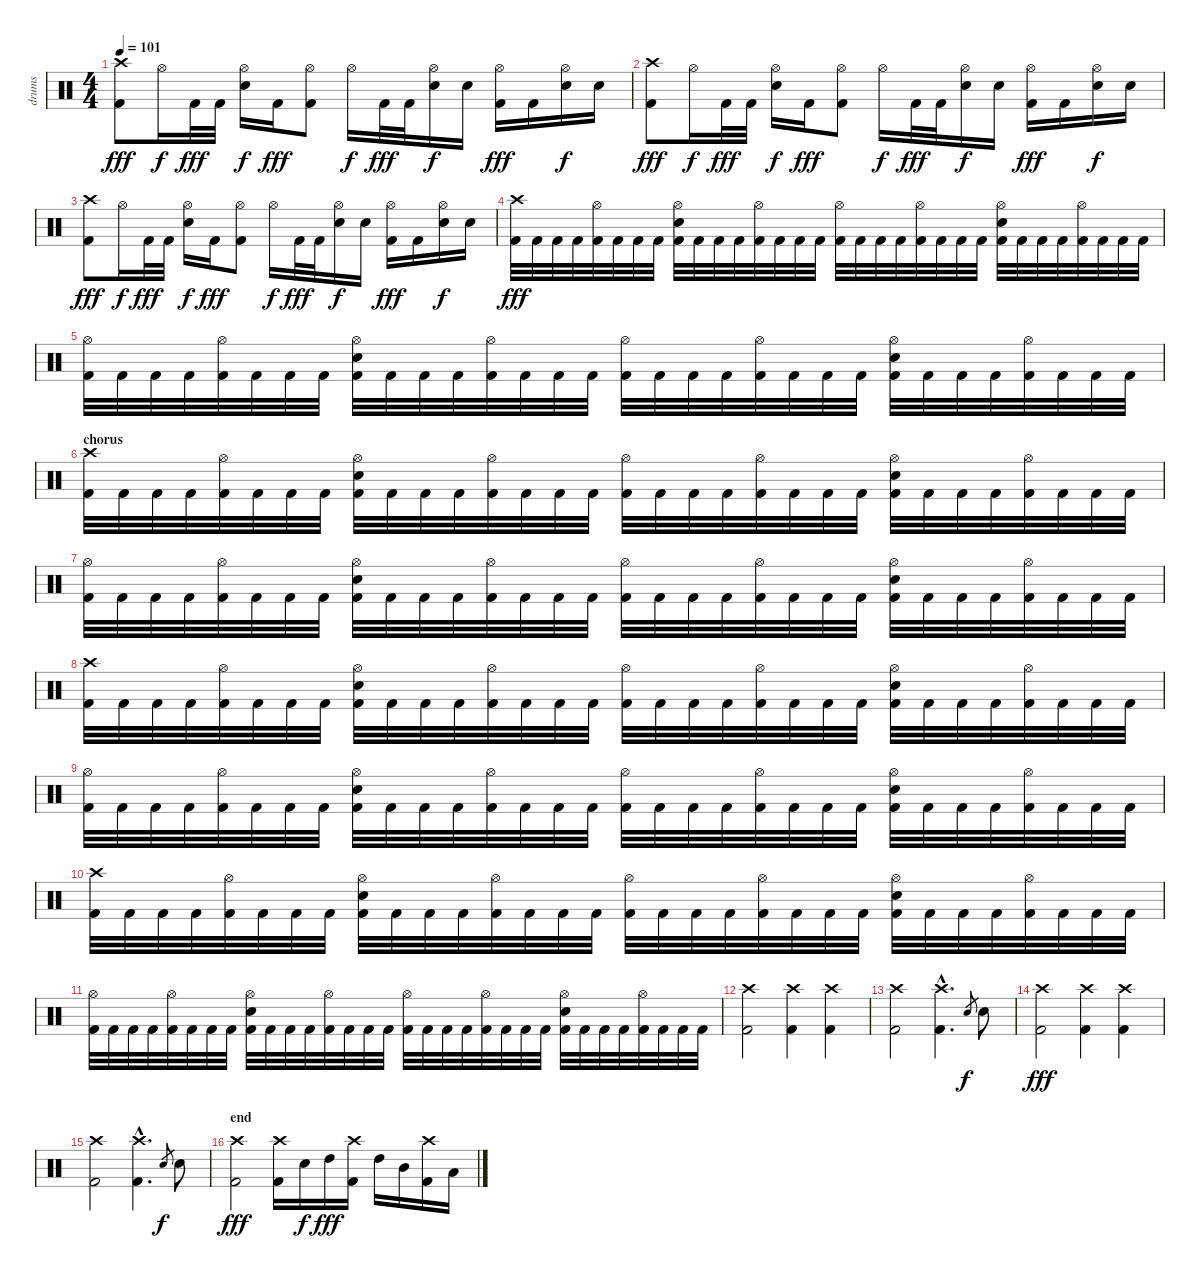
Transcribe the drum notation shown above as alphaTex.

\track ("drums" "drums") {instrument percussion}
\staff {score}
\articulation defaults
\ts (4 4)
\tempo 101
\clef neutral
\ks c
("Crash high (hit)" "Kick (hit) 2").8{dy fff} "Hi-Hat (open)".16{dy f} "Kick (hit) 2".32{dy fff} "Kick (hit) 2".32 ("Hi-Hat (open)" "Snare (hit) 2").16{dy f} "Kick (hit) 2".16{dy fff} ("Hi-Hat (open)" "Kick (hit) 2").8 "Hi-Hat (open)".16{dy f} "Kick (hit) 2".32{dy fff} "Kick (hit) 2".32 ("Hi-Hat (open)" "Snare (hit) 2").16{dy f} "Snare (hit) 2".16 ("Hi-Hat (open)" "Kick (hit) 2").16{dy fff} "Kick (hit) 2".16 ("Hi-Hat (open)" "Snare (hit) 2").16{dy f} "Snare (hit) 2".16 |
("Crash high (hit)" "Kick (hit) 2").8{dy fff} "Hi-Hat (open)".16{dy f} "Kick (hit) 2".32{dy fff} "Kick (hit) 2".32 ("Hi-Hat (open)" "Snare (hit) 2").16{dy f} "Kick (hit) 2".16{dy fff} ("Hi-Hat (open)" "Kick (hit) 2").8 "Hi-Hat (open)".16{dy f} "Kick (hit) 2".32{dy fff} "Kick (hit) 2".32 ("Hi-Hat (open)" "Snare (hit) 2").16{dy f} "Snare (hit) 2".16 ("Hi-Hat (open)" "Kick (hit) 2").16{dy fff} "Kick (hit) 2".16 ("Hi-Hat (open)" "Snare (hit) 2").16{dy f} "Snare (hit) 2".16 |
("Crash high (hit)" "Kick (hit) 2").8{dy fff} "Hi-Hat (open)".16{dy f} "Kick (hit) 2".32{dy fff} "Kick (hit) 2".32 ("Hi-Hat (open)" "Snare (hit) 2").16{dy f} "Kick (hit) 2".16{dy fff} ("Hi-Hat (open)" "Kick (hit) 2").8 "Hi-Hat (open)".16{dy f} "Kick (hit) 2".32{dy fff} "Kick (hit) 2".32 ("Hi-Hat (open)" "Snare (hit) 2").16{dy f} "Snare (hit) 2".16 ("Hi-Hat (open)" "Kick (hit) 2").16{dy fff} "Kick (hit) 2".16 ("Hi-Hat (open)" "Snare (hit) 2").16{dy f} "Snare (hit) 2".16 |
("Crash high (hit)" "Kick (hit) 2").32{dy fff} "Kick (hit) 2".32 "Kick (hit) 2".32 "Kick (hit) 2".32 ("Hi-Hat (open)" "Kick (hit) 2").32 "Kick (hit) 2".32 "Kick (hit) 2".32 "Kick (hit) 2".32 ("Hi-Hat (open)" "Snare (hit) 2" "Kick (hit) 2").32 "Kick (hit) 2".32 "Kick (hit) 2".32 "Kick (hit) 2".32 ("Hi-Hat (open)" "Kick (hit) 2").32 "Kick (hit) 2".32 "Kick (hit) 2".32 "Kick (hit) 2".32 ("Hi-Hat (open)" "Kick (hit) 2").32 "Kick (hit) 2".32 "Kick (hit) 2".32 "Kick (hit) 2".32 ("Hi-Hat (open)" "Kick (hit) 2").32 "Kick (hit) 2".32 "Kick (hit) 2".32 "Kick (hit) 2".32 ("Hi-Hat (open)" "Snare (hit) 2" "Kick (hit) 2").32 "Kick (hit) 2".32 "Kick (hit) 2".32 "Kick (hit) 2".32 ("Hi-Hat (open)" "Kick (hit) 2").32 "Kick (hit) 2".32 "Kick (hit) 2".32 "Kick (hit) 2".32 |
("Hi-Hat (open)" "Kick (hit) 2").32 "Kick (hit) 2".32 "Kick (hit) 2".32 "Kick (hit) 2".32 ("Hi-Hat (open)" "Kick (hit) 2").32 "Kick (hit) 2".32 "Kick (hit) 2".32 "Kick (hit) 2".32 ("Hi-Hat (open)" "Snare (hit) 2" "Kick (hit) 2").32 "Kick (hit) 2".32 "Kick (hit) 2".32 "Kick (hit) 2".32 ("Hi-Hat (open)" "Kick (hit) 2").32 "Kick (hit) 2".32 "Kick (hit) 2".32 "Kick (hit) 2".32 ("Hi-Hat (open)" "Kick (hit) 2").32 "Kick (hit) 2".32 "Kick (hit) 2".32 "Kick (hit) 2".32 ("Hi-Hat (open)" "Kick (hit) 2").32 "Kick (hit) 2".32 "Kick (hit) 2".32 "Kick (hit) 2".32 ("Hi-Hat (open)" "Snare (hit) 2" "Kick (hit) 2").32 "Kick (hit) 2".32 "Kick (hit) 2".32 "Kick (hit) 2".32 ("Hi-Hat (open)" "Kick (hit) 2").32 "Kick (hit) 2".32 "Kick (hit) 2".32 "Kick (hit) 2".32 |
\section ("" "chorus")
("Crash high (hit)" "Kick (hit) 2").32 "Kick (hit) 2".32 "Kick (hit) 2".32 "Kick (hit) 2".32 ("Hi-Hat (open)" "Kick (hit) 2").32 "Kick (hit) 2".32 "Kick (hit) 2".32 "Kick (hit) 2".32 ("Hi-Hat (open)" "Snare (hit) 2" "Kick (hit) 2").32 "Kick (hit) 2".32 "Kick (hit) 2".32 "Kick (hit) 2".32 ("Hi-Hat (open)" "Kick (hit) 2").32 "Kick (hit) 2".32 "Kick (hit) 2".32 "Kick (hit) 2".32 ("Hi-Hat (open)" "Kick (hit) 2").32 "Kick (hit) 2".32 "Kick (hit) 2".32 "Kick (hit) 2".32 ("Hi-Hat (open)" "Kick (hit) 2").32 "Kick (hit) 2".32 "Kick (hit) 2".32 "Kick (hit) 2".32 ("Hi-Hat (open)" "Snare (hit) 2" "Kick (hit) 2").32 "Kick (hit) 2".32 "Kick (hit) 2".32 "Kick (hit) 2".32 ("Hi-Hat (open)" "Kick (hit) 2").32 "Kick (hit) 2".32 "Kick (hit) 2".32 "Kick (hit) 2".32 |
("Hi-Hat (open)" "Kick (hit) 2").32 "Kick (hit) 2".32 "Kick (hit) 2".32 "Kick (hit) 2".32 ("Hi-Hat (open)" "Kick (hit) 2").32 "Kick (hit) 2".32 "Kick (hit) 2".32 "Kick (hit) 2".32 ("Hi-Hat (open)" "Snare (hit) 2" "Kick (hit) 2").32 "Kick (hit) 2".32 "Kick (hit) 2".32 "Kick (hit) 2".32 ("Hi-Hat (open)" "Kick (hit) 2").32 "Kick (hit) 2".32 "Kick (hit) 2".32 "Kick (hit) 2".32 ("Hi-Hat (open)" "Kick (hit) 2").32 "Kick (hit) 2".32 "Kick (hit) 2".32 "Kick (hit) 2".32 ("Hi-Hat (open)" "Kick (hit) 2").32 "Kick (hit) 2".32 "Kick (hit) 2".32 "Kick (hit) 2".32 ("Hi-Hat (open)" "Snare (hit) 2" "Kick (hit) 2").32 "Kick (hit) 2".32 "Kick (hit) 2".32 "Kick (hit) 2".32 ("Hi-Hat (open)" "Kick (hit) 2").32 "Kick (hit) 2".32 "Kick (hit) 2".32 "Kick (hit) 2".32 |
("Crash high (hit)" "Kick (hit) 2").32 "Kick (hit) 2".32 "Kick (hit) 2".32 "Kick (hit) 2".32 ("Hi-Hat (open)" "Kick (hit) 2").32 "Kick (hit) 2".32 "Kick (hit) 2".32 "Kick (hit) 2".32 ("Hi-Hat (open)" "Snare (hit) 2" "Kick (hit) 2").32 "Kick (hit) 2".32 "Kick (hit) 2".32 "Kick (hit) 2".32 ("Hi-Hat (open)" "Kick (hit) 2").32 "Kick (hit) 2".32 "Kick (hit) 2".32 "Kick (hit) 2".32 ("Hi-Hat (open)" "Kick (hit) 2").32 "Kick (hit) 2".32 "Kick (hit) 2".32 "Kick (hit) 2".32 ("Hi-Hat (open)" "Kick (hit) 2").32 "Kick (hit) 2".32 "Kick (hit) 2".32 "Kick (hit) 2".32 ("Hi-Hat (open)" "Snare (hit) 2" "Kick (hit) 2").32 "Kick (hit) 2".32 "Kick (hit) 2".32 "Kick (hit) 2".32 ("Hi-Hat (open)" "Kick (hit) 2").32 "Kick (hit) 2".32 "Kick (hit) 2".32 "Kick (hit) 2".32 |
("Hi-Hat (open)" "Kick (hit) 2").32 "Kick (hit) 2".32 "Kick (hit) 2".32 "Kick (hit) 2".32 ("Hi-Hat (open)" "Kick (hit) 2").32 "Kick (hit) 2".32 "Kick (hit) 2".32 "Kick (hit) 2".32 ("Hi-Hat (open)" "Snare (hit) 2" "Kick (hit) 2").32 "Kick (hit) 2".32 "Kick (hit) 2".32 "Kick (hit) 2".32 ("Hi-Hat (open)" "Kick (hit) 2").32 "Kick (hit) 2".32 "Kick (hit) 2".32 "Kick (hit) 2".32 ("Hi-Hat (open)" "Kick (hit) 2").32 "Kick (hit) 2".32 "Kick (hit) 2".32 "Kick (hit) 2".32 ("Hi-Hat (open)" "Kick (hit) 2").32 "Kick (hit) 2".32 "Kick (hit) 2".32 "Kick (hit) 2".32 ("Hi-Hat (open)" "Snare (hit) 2" "Kick (hit) 2").32 "Kick (hit) 2".32 "Kick (hit) 2".32 "Kick (hit) 2".32 ("Hi-Hat (open)" "Kick (hit) 2").32 "Kick (hit) 2".32 "Kick (hit) 2".32 "Kick (hit) 2".32 |
("Crash high (hit)" "Kick (hit) 2").32 "Kick (hit) 2".32 "Kick (hit) 2".32 "Kick (hit) 2".32 ("Hi-Hat (open)" "Kick (hit) 2").32 "Kick (hit) 2".32 "Kick (hit) 2".32 "Kick (hit) 2".32 ("Hi-Hat (open)" "Snare (hit) 2" "Kick (hit) 2").32 "Kick (hit) 2".32 "Kick (hit) 2".32 "Kick (hit) 2".32 ("Hi-Hat (open)" "Kick (hit) 2").32 "Kick (hit) 2".32 "Kick (hit) 2".32 "Kick (hit) 2".32 ("Hi-Hat (open)" "Kick (hit) 2").32 "Kick (hit) 2".32 "Kick (hit) 2".32 "Kick (hit) 2".32 ("Hi-Hat (open)" "Kick (hit) 2").32 "Kick (hit) 2".32 "Kick (hit) 2".32 "Kick (hit) 2".32 ("Hi-Hat (open)" "Snare (hit) 2" "Kick (hit) 2").32 "Kick (hit) 2".32 "Kick (hit) 2".32 "Kick (hit) 2".32 ("Hi-Hat (open)" "Kick (hit) 2").32 "Kick (hit) 2".32 "Kick (hit) 2".32 "Kick (hit) 2".32 |
("Hi-Hat (open)" "Kick (hit) 2").32 "Kick (hit) 2".32 "Kick (hit) 2".32 "Kick (hit) 2".32 ("Hi-Hat (open)" "Kick (hit) 2").32 "Kick (hit) 2".32 "Kick (hit) 2".32 "Kick (hit) 2".32 ("Hi-Hat (open)" "Snare (hit) 2" "Kick (hit) 2").32 "Kick (hit) 2".32 "Kick (hit) 2".32 "Kick (hit) 2".32 ("Hi-Hat (open)" "Kick (hit) 2").32 "Kick (hit) 2".32 "Kick (hit) 2".32 "Kick (hit) 2".32 ("Hi-Hat (open)" "Kick (hit) 2").32 "Kick (hit) 2".32 "Kick (hit) 2".32 "Kick (hit) 2".32 ("Hi-Hat (open)" "Kick (hit) 2").32 "Kick (hit) 2".32 "Kick (hit) 2".32 "Kick (hit) 2".32 ("Hi-Hat (open)" "Snare (hit) 2" "Kick (hit) 2").32 "Kick (hit) 2".32 "Kick (hit) 2".32 "Kick (hit) 2".32 ("Hi-Hat (open)" "Kick (hit) 2").32 "Kick (hit) 2".32 "Kick (hit) 2".32 "Kick (hit) 2".32 |
("Crash high (hit)" "Kick (hit) 2").2 ("Crash high (hit)" "Kick (hit) 2").4 ("Crash high (hit)" "Kick (hit) 2").4 |
("Crash high (hit)" "Kick (hit) 2").2 ("Crash high (hit)"{hac} "Kick (hit) 2"{hac}).4{d} "Snare (hit) 2".8{gr dy f} "Snare (hit) 2".8 |
("Crash high (hit)" "Kick (hit) 2").2{dy fff} ("Crash high (hit)" "Kick (hit) 2").4 ("Crash high (hit)" "Kick (hit) 2").4 |
("Crash high (hit)" "Kick (hit) 2").2 ("Crash high (hit)"{hac} "Kick (hit) 2"{hac}).4{d} "Snare (hit) 2".8{gr dy f} "Snare (hit) 2".8 |
\section ("" "end")
("Crash high (hit)" "Kick (hit) 2").2{dy fff} ("Crash high (hit)" "Kick (hit) 2").16 "Snare (hit) 2".16{dy f} "High Tom (hit)".16{dy fff} ("Crash high (hit)" "Kick (hit) 2").16 "High Tom (hit)".16 "Mid Tom (hit)".16 ("Crash high (hit)" "Kick (hit) 2").16 "Low Tom (hit)".16
